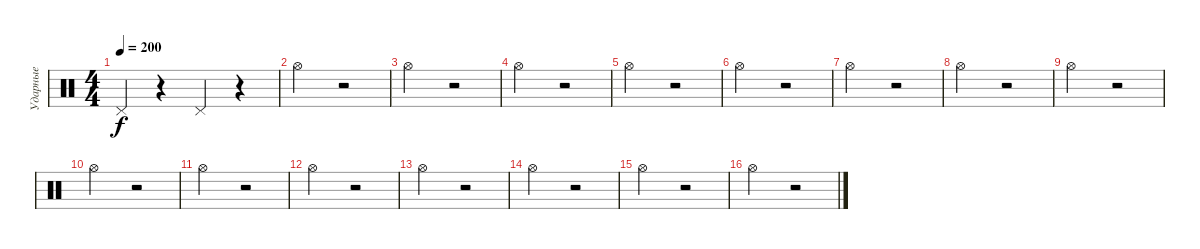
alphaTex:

\track ("Ударные" "Ударные") {instrument percussion}
\staff {score}
\articulation defaults
\ts (4 4)
\tempo 200
\clef neutral
\ks c "Pedal Hi-Hat (hit)".4{dy f}
r.4 "Pedal Hi-Hat (hit)".4 r.4 |
"Hi-Hat (open)".2 r.2 |
"Hi-Hat (open)".2 r.2 |
"Hi-Hat (open)".2 r.2 |
"Hi-Hat (open)".2 r.2 |
"Hi-Hat (open)".2 r.2 |
"Hi-Hat (open)".2 r.2 |
"Hi-Hat (open)".2 r.2 |
"Hi-Hat (open)".2 r.2 |
"Hi-Hat (open)".2 r.2 |
"Hi-Hat (open)".2 r.2 |
"Hi-Hat (open)".2 r.2 |
"Hi-Hat (open)".2 r.2 |
"Hi-Hat (open)".2 r.2 |
"Hi-Hat (open)".2 r.2 |
"Hi-Hat (open)".2 r.2
